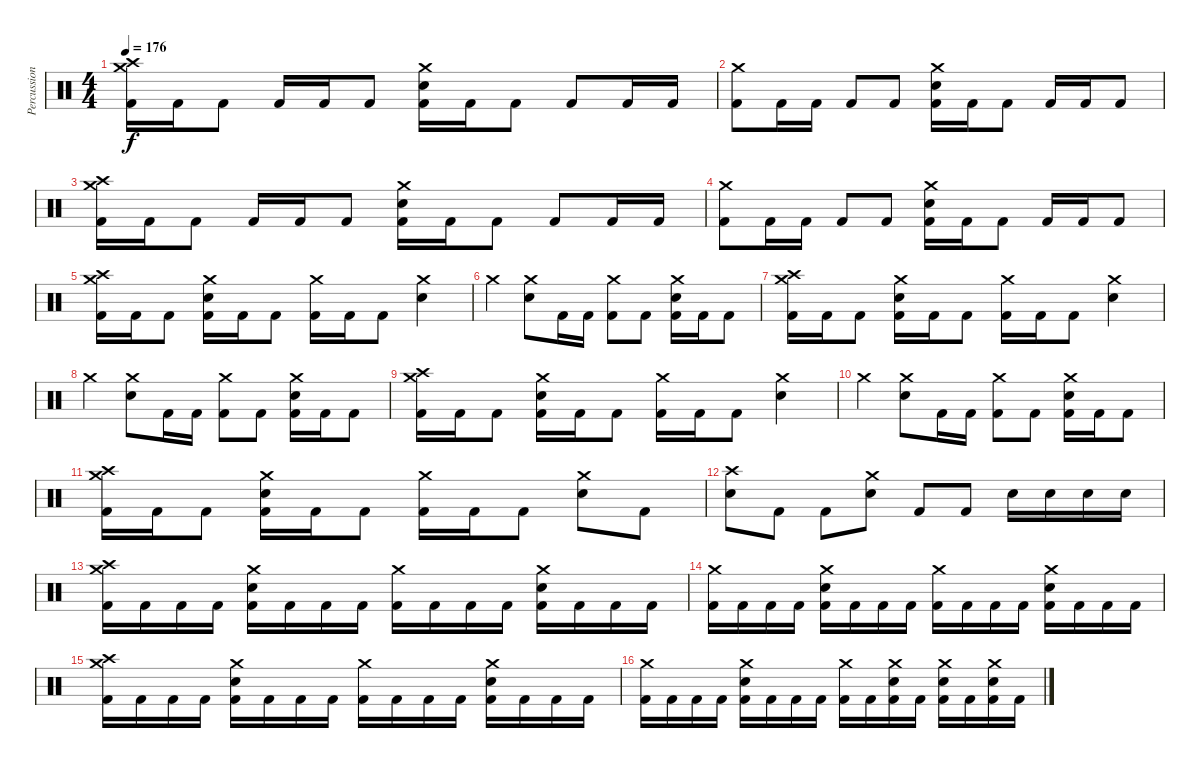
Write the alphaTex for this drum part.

\track ("Percussion" "Percussion") {instrument percussion}
\staff {score}
\articulation defaults
\ts (4 4)
\tempo 176
\clef neutral
\ks c
("Crash high (hit)" "Crash medium (hit)" "Kick (hit) 2").16{dy f} "Kick (hit) 2".16 "Kick (hit) 2".8 "Kick (hit) 2".16 "Kick (hit) 2".16 "Kick (hit) 2".8 ("Crash medium (hit)" "Snare (hit) 2" "Kick (hit) 2").16 "Kick (hit) 2".16 "Kick (hit) 2".8 "Kick (hit) 2".8 "Kick (hit) 2".16 "Kick (hit) 2".16 |
("Crash medium (hit)" "Kick (hit) 2").8 "Kick (hit) 2".16 "Kick (hit) 2".16 "Kick (hit) 2".8 "Kick (hit) 2".8 ("Crash medium (hit)" "Snare (hit) 2" "Kick (hit) 2").16 "Kick (hit) 2".16 "Kick (hit) 2".8 "Kick (hit) 2".16 "Kick (hit) 2".16 "Kick (hit) 2".8 |
("Crash high (hit)" "Crash medium (hit)" "Kick (hit) 2").16 "Kick (hit) 2".16 "Kick (hit) 2".8 "Kick (hit) 2".16 "Kick (hit) 2".16 "Kick (hit) 2".8 ("Crash medium (hit)" "Snare (hit) 2" "Kick (hit) 2").16 "Kick (hit) 2".16 "Kick (hit) 2".8 "Kick (hit) 2".8 "Kick (hit) 2".16 "Kick (hit) 2".16 |
("Crash medium (hit)" "Kick (hit) 2").8 "Kick (hit) 2".16 "Kick (hit) 2".16 "Kick (hit) 2".8 "Kick (hit) 2".8 ("Crash medium (hit)" "Snare (hit) 2" "Kick (hit) 2").16 "Kick (hit) 2".16 "Kick (hit) 2".8 "Kick (hit) 2".16 "Kick (hit) 2".16 "Kick (hit) 2".8 |
("Crash high (hit)" "Crash medium (hit)" "Kick (hit) 2").16 "Kick (hit) 2".16 "Kick (hit) 2".8 ("Crash medium (hit)" "Snare (hit) 2" "Kick (hit) 2").16 "Kick (hit) 2".16 "Kick (hit) 2".8 ("Crash medium (hit)" "Kick (hit) 2").16 "Kick (hit) 2".16 "Kick (hit) 2".8 ("Crash medium (hit)" "Snare (hit) 2").4 |
"Crash medium (hit)".4 ("Crash medium (hit)" "Snare (hit) 2").8 "Kick (hit) 2".16 "Kick (hit) 2".16 ("Crash medium (hit)" "Kick (hit) 2").8 "Kick (hit) 2".8 ("Crash medium (hit)" "Snare (hit) 2" "Kick (hit) 2").16 "Kick (hit) 2".16 "Kick (hit) 2".8 |
("Crash high (hit)" "Crash medium (hit)" "Kick (hit) 2").16 "Kick (hit) 2".16 "Kick (hit) 2".8 ("Crash medium (hit)" "Snare (hit) 2" "Kick (hit) 2").16 "Kick (hit) 2".16 "Kick (hit) 2".8 ("Crash medium (hit)" "Kick (hit) 2").16 "Kick (hit) 2".16 "Kick (hit) 2".8 ("Crash medium (hit)" "Snare (hit) 2").4 |
"Crash medium (hit)".4 ("Crash medium (hit)" "Snare (hit) 2").8 "Kick (hit) 2".16 "Kick (hit) 2".16 ("Crash medium (hit)" "Kick (hit) 2").8 "Kick (hit) 2".8 ("Crash medium (hit)" "Snare (hit) 2" "Kick (hit) 2").16 "Kick (hit) 2".16 "Kick (hit) 2".8 |
("Crash high (hit)" "Crash medium (hit)" "Kick (hit) 2").16 "Kick (hit) 2".16 "Kick (hit) 2".8 ("Crash medium (hit)" "Snare (hit) 2" "Kick (hit) 2").16 "Kick (hit) 2".16 "Kick (hit) 2".8 ("Crash medium (hit)" "Kick (hit) 2").16 "Kick (hit) 2".16 "Kick (hit) 2".8 ("Crash medium (hit)" "Snare (hit) 2").4 |
"Crash medium (hit)".4 ("Crash medium (hit)" "Snare (hit) 2").8 "Kick (hit) 2".16 "Kick (hit) 2".16 ("Crash medium (hit)" "Kick (hit) 2").8 "Kick (hit) 2".8 ("Crash medium (hit)" "Snare (hit) 2" "Kick (hit) 2").16 "Kick (hit) 2".16 "Kick (hit) 2".8 |
("Crash high (hit)" "Crash medium (hit)" "Kick (hit) 2").16 "Kick (hit) 2".16 "Kick (hit) 2".8 ("Crash medium (hit)" "Snare (hit) 2" "Kick (hit) 2").16 "Kick (hit) 2".16 "Kick (hit) 2".8 ("Crash medium (hit)" "Kick (hit) 2").16 "Kick (hit) 2".16 "Kick (hit) 2".8 ("Crash medium (hit)" "Snare (hit) 2").8 "Kick (hit) 2".8 |
("Crash high (hit)" "Snare (hit) 2").8 "Kick (hit) 2".8 "Kick (hit) 2".8 ("Crash medium (hit)" "Snare (hit) 2").8 "Kick (hit) 2".8 "Kick (hit) 2".8 "Snare (hit) 2".16 "Snare (hit) 2".16 "Snare (hit) 2".16 "Snare (hit) 2".16 |
("Crash high (hit)" "Crash medium (hit)" "Kick (hit) 2").16 "Kick (hit) 2".16 "Kick (hit) 2".16 "Kick (hit) 2".16 ("Crash medium (hit)" "Snare (hit) 2" "Kick (hit) 2").16 "Kick (hit) 2".16 "Kick (hit) 2".16 "Kick (hit) 2".16 ("Crash medium (hit)" "Kick (hit) 2").16 "Kick (hit) 2".16 "Kick (hit) 2".16 "Kick (hit) 2".16 ("Crash medium (hit)" "Snare (hit) 2" "Kick (hit) 2").16 "Kick (hit) 2".16 "Kick (hit) 2".16 "Kick (hit) 2".16 |
("Crash medium (hit)" "Kick (hit) 2").16 "Kick (hit) 2".16 "Kick (hit) 2".16 "Kick (hit) 2".16 ("Crash medium (hit)" "Snare (hit) 2" "Kick (hit) 2").16 "Kick (hit) 2".16 "Kick (hit) 2".16 "Kick (hit) 2".16 ("Crash medium (hit)" "Kick (hit) 2").16 "Kick (hit) 2".16 "Kick (hit) 2".16 "Kick (hit) 2".16 ("Crash medium (hit)" "Snare (hit) 2" "Kick (hit) 2").16 "Kick (hit) 2".16 "Kick (hit) 2".16 "Kick (hit) 2".16 |
("Crash high (hit)" "Crash medium (hit)" "Kick (hit) 2").16 "Kick (hit) 2".16 "Kick (hit) 2".16 "Kick (hit) 2".16 ("Crash medium (hit)" "Snare (hit) 2" "Kick (hit) 2").16 "Kick (hit) 2".16 "Kick (hit) 2".16 "Kick (hit) 2".16 ("Crash medium (hit)" "Kick (hit) 2").16 "Kick (hit) 2".16 "Kick (hit) 2".16 "Kick (hit) 2".16 ("Crash medium (hit)" "Snare (hit) 2" "Kick (hit) 2").16 "Kick (hit) 2".16 "Kick (hit) 2".16 "Kick (hit) 2".16 |
("Crash medium (hit)" "Kick (hit) 2").16 "Kick (hit) 2".16 "Kick (hit) 2".16 "Kick (hit) 2".16 ("Crash medium (hit)" "Snare (hit) 2" "Kick (hit) 2").16 "Kick (hit) 2".16 "Kick (hit) 2".16 "Kick (hit) 2".16 ("Crash medium (hit)" "Kick (hit) 2").16 "Kick (hit) 2".16 ("Crash medium (hit)" "Snare (hit) 2" "Kick (hit) 2").16 "Kick (hit) 2".16 ("Crash medium (hit)" "Snare (hit) 2" "Kick (hit) 2").16 "Kick (hit) 2".16 ("Crash medium (hit)" "Snare (hit) 2" "Kick (hit) 2").16 "Kick (hit) 2".16
